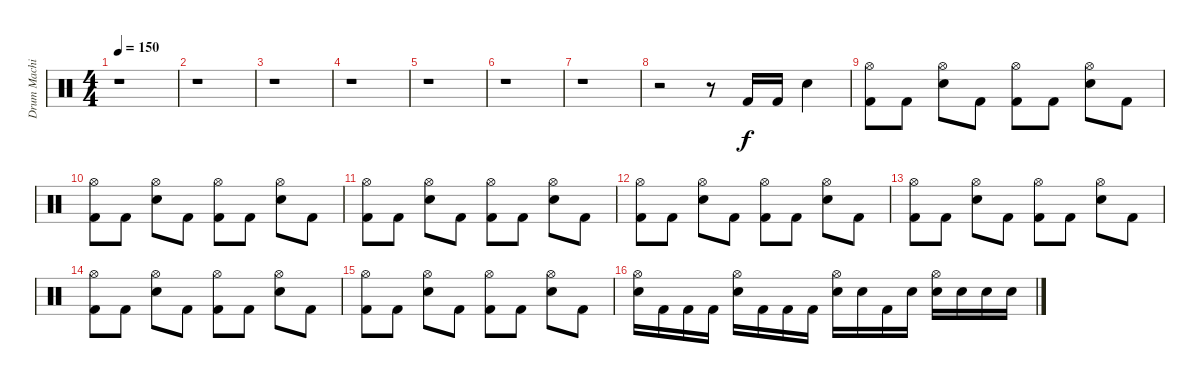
\track ("Drum Machine" "Drum Machi") {instrument percussion}
\staff {score}
\articulation defaults
\ts (4 4)
\tempo 150
\clef neutral
\ks c
r.1{dy f} |
r.1 |
r.1 |
r.1 |
r.1 |
r.1 |
r.1 |
r.2 r.8 "Kick (hit) 2".16 "Kick (hit) 2".16 "Electric Snare (hit)".4 |
("Kick (hit) 2" "Hi-Hat (open)").8 "Kick (hit) 2".8 ("Electric Snare (hit)" "Hi-Hat (open)").8 "Kick (hit) 2".8 ("Kick (hit) 2" "Hi-Hat (open)").8 "Kick (hit) 2".8 ("Electric Snare (hit)" "Hi-Hat (open)").8 "Kick (hit) 2".8 |
("Kick (hit) 2" "Hi-Hat (open)").8 "Kick (hit) 2".8 ("Electric Snare (hit)" "Hi-Hat (open)").8 "Kick (hit) 2".8 ("Kick (hit) 2" "Hi-Hat (open)").8 "Kick (hit) 2".8 ("Electric Snare (hit)" "Hi-Hat (open)").8 "Kick (hit) 2".8 |
("Kick (hit) 2" "Hi-Hat (open)").8 "Kick (hit) 2".8 ("Electric Snare (hit)" "Hi-Hat (open)").8 "Kick (hit) 2".8 ("Kick (hit) 2" "Hi-Hat (open)").8 "Kick (hit) 2".8 ("Electric Snare (hit)" "Hi-Hat (open)").8 "Kick (hit) 2".8 |
("Kick (hit) 2" "Hi-Hat (open)").8 "Kick (hit) 2".8 ("Electric Snare (hit)" "Hi-Hat (open)").8 "Kick (hit) 2".8 ("Kick (hit) 2" "Hi-Hat (open)").8 "Kick (hit) 2".8 ("Electric Snare (hit)" "Hi-Hat (open)").8 "Kick (hit) 2".8 |
("Kick (hit) 2" "Hi-Hat (open)").8 "Kick (hit) 2".8 ("Electric Snare (hit)" "Hi-Hat (open)").8 "Kick (hit) 2".8 ("Kick (hit) 2" "Hi-Hat (open)").8 "Kick (hit) 2".8 ("Electric Snare (hit)" "Hi-Hat (open)").8 "Kick (hit) 2".8 |
("Kick (hit) 2" "Hi-Hat (open)").8 "Kick (hit) 2".8 ("Electric Snare (hit)" "Hi-Hat (open)").8 "Kick (hit) 2".8 ("Kick (hit) 2" "Hi-Hat (open)").8 "Kick (hit) 2".8 ("Electric Snare (hit)" "Hi-Hat (open)").8 "Kick (hit) 2".8 |
("Kick (hit) 2" "Hi-Hat (open)").8 "Kick (hit) 2".8 ("Electric Snare (hit)" "Hi-Hat (open)").8 "Kick (hit) 2".8 ("Kick (hit) 2" "Hi-Hat (open)").8 "Kick (hit) 2".8 ("Electric Snare (hit)" "Hi-Hat (open)").8 "Kick (hit) 2".8 |
("Electric Snare (hit)" "Hi-Hat (open)").16 "Kick (hit) 2".16 "Kick (hit) 2".16 "Kick (hit) 2".16 ("Electric Snare (hit)" "Hi-Hat (open)").16 "Kick (hit) 2".16 "Kick (hit) 2".16 "Kick (hit) 2".16 ("Electric Snare (hit)" "Hi-Hat (open)").16 "Electric Snare (hit)".16 "Kick (hit) 2".16 "Electric Snare (hit)".16 ("Electric Snare (hit)" "Hi-Hat (open)").16 "Electric Snare (hit)".16 "Electric Snare (hit)".16 "Electric Snare (hit)".16
